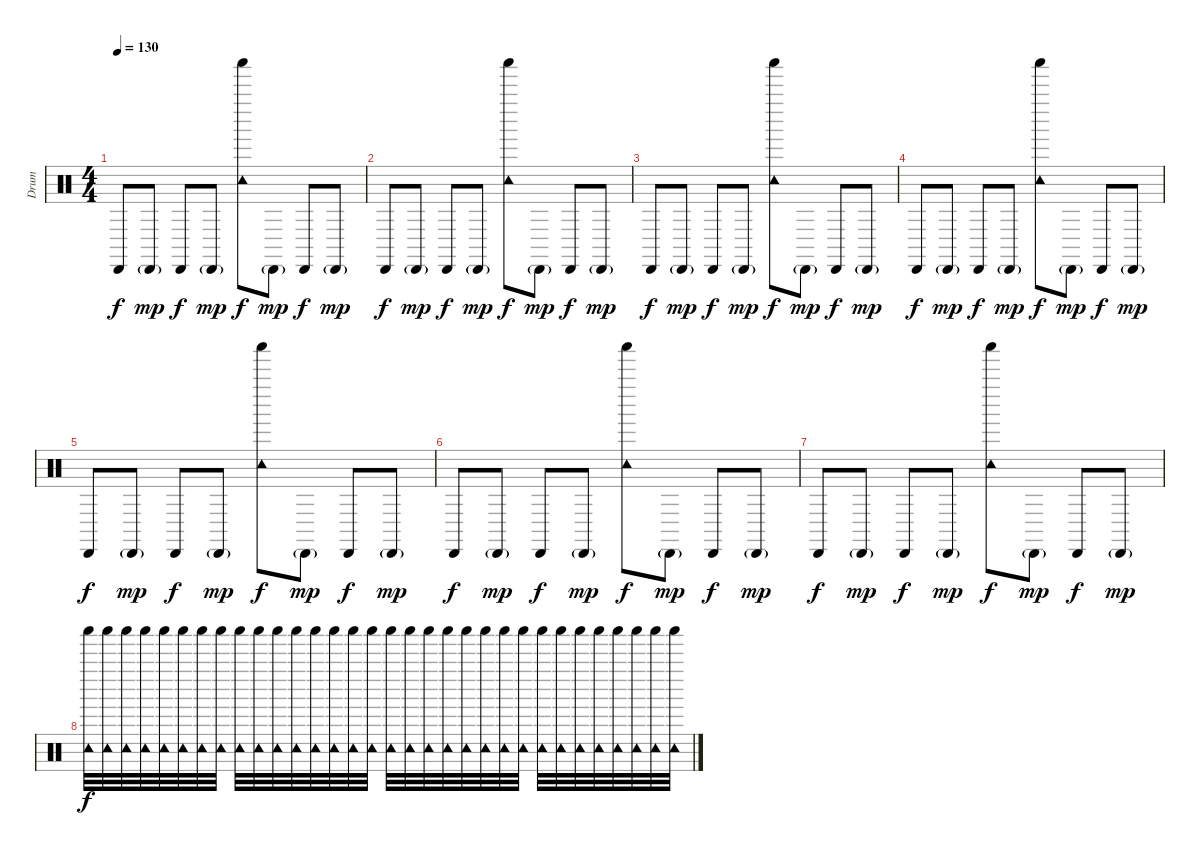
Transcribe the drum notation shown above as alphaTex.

\track ("Drum" "Drum") {instrument percussion}
\staff {score}
\articulation defaults
\ts (4 4)
\tempo 130
\clef neutral
\ks c "Cabasa (hit)".8{dy f} "Cabasa (hit)"{g}.8{dy mp} "Cabasa (hit)".8{dy f} "Cabasa (hit)"{g}.8{dy mp}
("Shaker (hit)" "Tambourine (hit)").8{dy f} "Cabasa (hit)"{g}.8{dy mp} "Cabasa (hit)".8{dy f} "Cabasa (hit)"{g}.8{dy mp} |
"Cabasa (hit)".8{dy f} "Cabasa (hit)"{g}.8{dy mp} "Cabasa (hit)".8{dy f} "Cabasa (hit)"{g}.8{dy mp} ("Shaker (hit)" "Tambourine (hit)").8{dy f} "Cabasa (hit)"{g}.8{dy mp} "Cabasa (hit)".8{dy f} "Cabasa (hit)"{g}.8{dy mp} |
"Cabasa (hit)".8{dy f} "Cabasa (hit)"{g}.8{dy mp} "Cabasa (hit)".8{dy f} "Cabasa (hit)"{g}.8{dy mp} ("Shaker (hit)" "Tambourine (hit)").8{dy f} "Cabasa (hit)"{g}.8{dy mp} "Cabasa (hit)".8{dy f} "Cabasa (hit)"{g}.8{dy mp} |
"Cabasa (hit)".8{dy f} "Cabasa (hit)"{g}.8{dy mp} "Cabasa (hit)".8{dy f} "Cabasa (hit)"{g}.8{dy mp} ("Shaker (hit)" "Tambourine (hit)").8{dy f} "Cabasa (hit)"{g}.8{dy mp} "Cabasa (hit)".8{dy f} "Cabasa (hit)"{g}.8{dy mp} |
"Cabasa (hit)".8{dy f} "Cabasa (hit)"{g}.8{dy mp} "Cabasa (hit)".8{dy f} "Cabasa (hit)"{g}.8{dy mp} ("Shaker (hit)" "Tambourine (hit)").8{dy f} "Cabasa (hit)"{g}.8{dy mp} "Cabasa (hit)".8{dy f} "Cabasa (hit)"{g}.8{dy mp} |
"Cabasa (hit)".8{dy f} "Cabasa (hit)"{g}.8{dy mp} "Cabasa (hit)".8{dy f} "Cabasa (hit)"{g}.8{dy mp} ("Shaker (hit)" "Tambourine (hit)").8{dy f} "Cabasa (hit)"{g}.8{dy mp} "Cabasa (hit)".8{dy f} "Cabasa (hit)"{g}.8{dy mp} |
"Cabasa (hit)".8{dy f} "Cabasa (hit)"{g}.8{dy mp} "Cabasa (hit)".8{dy f} "Cabasa (hit)"{g}.8{dy mp} ("Shaker (hit)" "Tambourine (hit)").8{dy f} "Cabasa (hit)"{g}.8{dy mp} "Cabasa (hit)".8{dy f} "Cabasa (hit)"{g}.8{dy mp} |
("Shaker (hit)" "Tambourine (hit)").32{dy f volume 0} ("Shaker (hit)" "Tambourine (hit)").32 ("Shaker (hit)" "Tambourine (hit)").32 ("Shaker (hit)" "Tambourine (hit)").32 ("Shaker (hit)" "Tambourine (hit)").32 ("Shaker (hit)" "Tambourine (hit)").32 ("Shaker (hit)" "Tambourine (hit)").32 ("Shaker (hit)" "Tambourine (hit)").32 ("Shaker (hit)" "Tambourine (hit)").32 ("Shaker (hit)" "Tambourine (hit)").32 ("Shaker (hit)" "Tambourine (hit)").32 ("Shaker (hit)" "Tambourine (hit)").32 ("Shaker (hit)" "Tambourine (hit)").32 ("Shaker (hit)" "Tambourine (hit)").32 ("Shaker (hit)" "Tambourine (hit)").32 ("Shaker (hit)" "Tambourine (hit)").32 ("Shaker (hit)" "Tambourine (hit)").32 ("Shaker (hit)" "Tambourine (hit)").32 ("Shaker (hit)" "Tambourine (hit)").32 ("Shaker (hit)" "Tambourine (hit)").32 ("Shaker (hit)" "Tambourine (hit)").32 ("Shaker (hit)" "Tambourine (hit)").32 ("Shaker (hit)" "Tambourine (hit)").32 ("Shaker (hit)" "Tambourine (hit)").32 ("Shaker (hit)" "Tambourine (hit)").32 ("Shaker (hit)" "Tambourine (hit)").32 ("Shaker (hit)" "Tambourine (hit)").32 ("Shaker (hit)" "Tambourine (hit)").32 ("Shaker (hit)" "Tambourine (hit)").32 ("Shaker (hit)" "Tambourine (hit)").32 ("Shaker (hit)" "Tambourine (hit)").32 ("Shaker (hit)" "Tambourine (hit)").32
